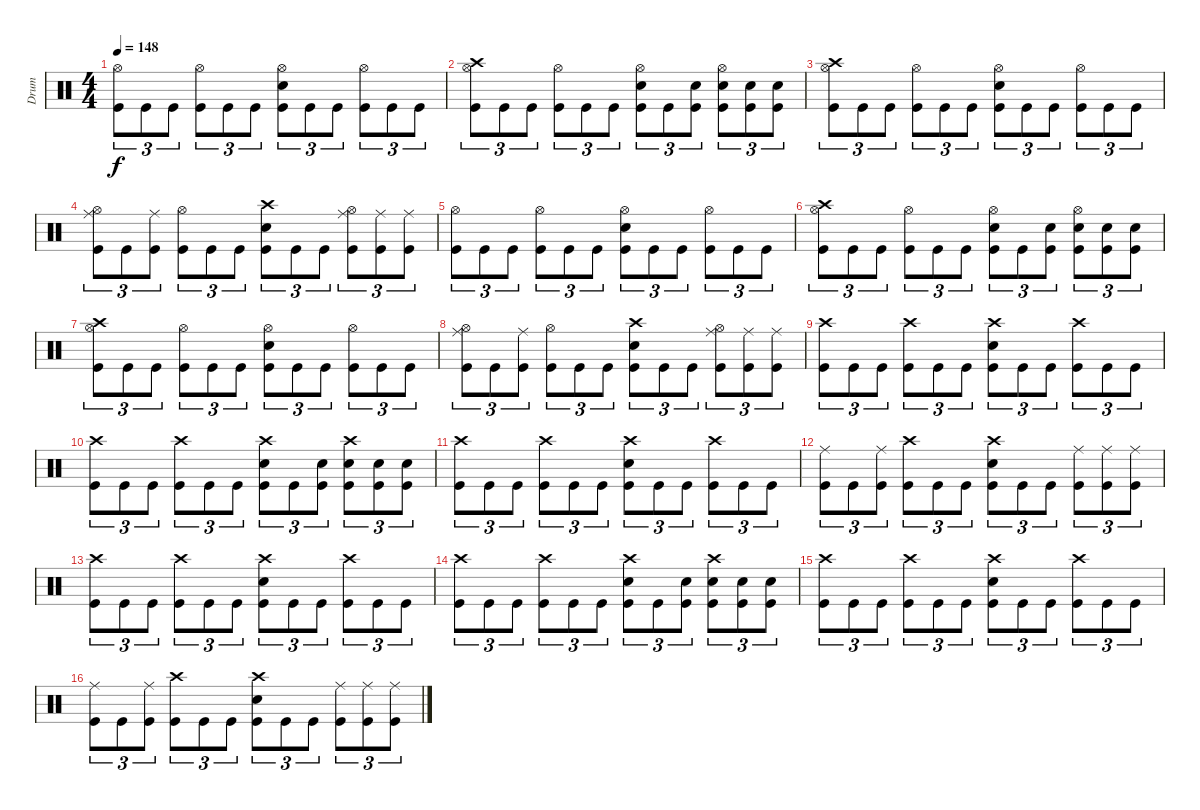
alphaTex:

\track ("Drum" "Drum") {instrument percussion}
\staff {score}
\articulation defaults
\ts (4 4)
\tempo 148
\clef neutral
\ks c
("Hi-Hat (open)" "Kick (hit)").8{tu (3 2) dy f} "Kick (hit)".8{tu (3 2)} "Kick (hit)".8{tu (3 2)} ("Hi-Hat (open)" "Kick (hit)").8{tu (3 2)} "Kick (hit)".8{tu (3 2)} "Kick (hit)".8{tu (3 2)} ("Hi-Hat (open)" "Snare (hit) 2" "Kick (hit)").8{tu (3 2)} "Kick (hit)".8{tu (3 2)} "Kick (hit)".8{tu (3 2)} ("Hi-Hat (open)" "Kick (hit)").8{tu (3 2)} "Kick (hit)".8{tu (3 2)} "Kick (hit)".8{tu (3 2)} |
("Crash high (hit)" "Hi-Hat (open)" "Kick (hit)").8{tu (3 2)} "Kick (hit)".8{tu (3 2)} "Kick (hit)".8{tu (3 2)} ("Hi-Hat (open)" "Kick (hit)").8{tu (3 2)} "Kick (hit)".8{tu (3 2)} "Kick (hit)".8{tu (3 2)} ("Hi-Hat (open)" "Snare (hit) 2" "Kick (hit)").8{tu (3 2)} "Kick (hit)".8{tu (3 2)} ("Snare (hit) 2" "Kick (hit)").8{tu (3 2)} ("Hi-Hat (open)" "Snare (hit) 2" "Kick (hit)").8{tu (3 2)} ("Snare (hit) 2" "Kick (hit)").8{tu (3 2)} ("Snare (hit) 2" "Kick (hit)").8{tu (3 2)} |
("Crash high (hit)" "Hi-Hat (open)" "Kick (hit)").8{tu (3 2)} "Kick (hit)".8{tu (3 2)} "Kick (hit)".8{tu (3 2)} ("Hi-Hat (open)" "Kick (hit)").8{tu (3 2)} "Kick (hit)".8{tu (3 2)} "Kick (hit)".8{tu (3 2)} ("Hi-Hat (open)" "Snare (hit) 2" "Kick (hit)").8{tu (3 2)} "Kick (hit)".8{tu (3 2)} "Kick (hit)".8{tu (3 2)} ("Hi-Hat (open)" "Kick (hit)").8{tu (3 2)} "Kick (hit)".8{tu (3 2)} "Kick (hit)".8{tu (3 2)} |
("Ride (middle)" "Hi-Hat (open)" "Kick (hit)").8{tu (3 2)} "Kick (hit)".8{tu (3 2)} ("Ride (middle)" "Kick (hit)").8{tu (3 2)} ("Hi-Hat (open)" "Kick (hit)").8{tu (3 2)} "Kick (hit)".8{tu (3 2)} "Kick (hit)".8{tu (3 2)} ("Crash high (hit)" "Snare (hit) 2" "Kick (hit)").8{tu (3 2)} "Kick (hit)".8{tu (3 2)} "Kick (hit)".8{tu (3 2)} ("Ride (middle)" "Hi-Hat (open)" "Kick (hit)").8{tu (3 2)} ("Ride (middle)" "Kick (hit)").8{tu (3 2)} ("Ride (middle)" "Kick (hit)").8{tu (3 2)} |
("Hi-Hat (open)" "Kick (hit)").8{tu (3 2)} "Kick (hit)".8{tu (3 2)} "Kick (hit)".8{tu (3 2)} ("Hi-Hat (open)" "Kick (hit)").8{tu (3 2)} "Kick (hit)".8{tu (3 2)} "Kick (hit)".8{tu (3 2)} ("Hi-Hat (open)" "Snare (hit) 2" "Kick (hit)").8{tu (3 2)} "Kick (hit)".8{tu (3 2)} "Kick (hit)".8{tu (3 2)} ("Hi-Hat (open)" "Kick (hit)").8{tu (3 2)} "Kick (hit)".8{tu (3 2)} "Kick (hit)".8{tu (3 2)} |
("Crash high (hit)" "Hi-Hat (open)" "Kick (hit)").8{tu (3 2)} "Kick (hit)".8{tu (3 2)} "Kick (hit)".8{tu (3 2)} ("Hi-Hat (open)" "Kick (hit)").8{tu (3 2)} "Kick (hit)".8{tu (3 2)} "Kick (hit)".8{tu (3 2)} ("Hi-Hat (open)" "Snare (hit) 2" "Kick (hit)").8{tu (3 2)} "Kick (hit)".8{tu (3 2)} ("Snare (hit) 2" "Kick (hit)").8{tu (3 2)} ("Hi-Hat (open)" "Snare (hit) 2" "Kick (hit)").8{tu (3 2)} ("Snare (hit) 2" "Kick (hit)").8{tu (3 2)} ("Snare (hit) 2" "Kick (hit)").8{tu (3 2)} |
("Crash high (hit)" "Hi-Hat (open)" "Kick (hit)").8{tu (3 2)} "Kick (hit)".8{tu (3 2)} "Kick (hit)".8{tu (3 2)} ("Hi-Hat (open)" "Kick (hit)").8{tu (3 2)} "Kick (hit)".8{tu (3 2)} "Kick (hit)".8{tu (3 2)} ("Hi-Hat (open)" "Snare (hit) 2" "Kick (hit)").8{tu (3 2)} "Kick (hit)".8{tu (3 2)} "Kick (hit)".8{tu (3 2)} ("Hi-Hat (open)" "Kick (hit)").8{tu (3 2)} "Kick (hit)".8{tu (3 2)} "Kick (hit)".8{tu (3 2)} |
("Ride (middle)" "Hi-Hat (open)" "Kick (hit)").8{tu (3 2)} "Kick (hit)".8{tu (3 2)} ("Ride (middle)" "Kick (hit)").8{tu (3 2)} ("Hi-Hat (open)" "Kick (hit)").8{tu (3 2)} "Kick (hit)".8{tu (3 2)} "Kick (hit)".8{tu (3 2)} ("Crash high (hit)" "Snare (hit) 2" "Kick (hit)").8{tu (3 2)} "Kick (hit)".8{tu (3 2)} "Kick (hit)".8{tu (3 2)} ("Ride (middle)" "Hi-Hat (open)" "Kick (hit)").8{tu (3 2)} ("Ride (middle)" "Kick (hit)").8{tu (3 2)} ("Ride (middle)" "Kick (hit)").8{tu (3 2)} |
("Crash high (hit)" "Kick (hit)").8{tu (3 2)} "Kick (hit)".8{tu (3 2)} "Kick (hit)".8{tu (3 2)} ("Crash high (hit)" "Kick (hit)").8{tu (3 2)} "Kick (hit)".8{tu (3 2)} "Kick (hit)".8{tu (3 2)} ("Crash high (hit)" "Snare (hit) 2" "Kick (hit)").8{tu (3 2)} "Kick (hit)".8{tu (3 2)} "Kick (hit)".8{tu (3 2)} ("Crash high (hit)" "Kick (hit)").8{tu (3 2)} "Kick (hit)".8{tu (3 2)} "Kick (hit)".8{tu (3 2)} |
("Crash high (hit)" "Kick (hit)").8{tu (3 2)} "Kick (hit)".8{tu (3 2)} "Kick (hit)".8{tu (3 2)} ("Crash high (hit)" "Kick (hit)").8{tu (3 2)} "Kick (hit)".8{tu (3 2)} "Kick (hit)".8{tu (3 2)} ("Crash high (hit)" "Snare (hit) 2" "Kick (hit)").8{tu (3 2)} "Kick (hit)".8{tu (3 2)} ("Snare (hit) 2" "Kick (hit)").8{tu (3 2)} ("Crash high (hit)" "Snare (hit) 2" "Kick (hit)").8{tu (3 2)} ("Snare (hit) 2" "Kick (hit)").8{tu (3 2)} ("Snare (hit) 2" "Kick (hit)").8{tu (3 2)} |
("Crash high (hit)" "Kick (hit)").8{tu (3 2)} "Kick (hit)".8{tu (3 2)} "Kick (hit)".8{tu (3 2)} ("Crash high (hit)" "Kick (hit)").8{tu (3 2)} "Kick (hit)".8{tu (3 2)} "Kick (hit)".8{tu (3 2)} ("Crash high (hit)" "Snare (hit) 2" "Kick (hit)").8{tu (3 2)} "Kick (hit)".8{tu (3 2)} "Kick (hit)".8{tu (3 2)} ("Crash high (hit)" "Kick (hit)").8{tu (3 2)} "Kick (hit)".8{tu (3 2)} "Kick (hit)".8{tu (3 2)} |
("Ride (middle)" "Kick (hit)").8{tu (3 2)} "Kick (hit)".8{tu (3 2)} ("Ride (middle)" "Kick (hit)").8{tu (3 2)} ("Crash high (hit)" "Kick (hit)").8{tu (3 2)} "Kick (hit)".8{tu (3 2)} "Kick (hit)".8{tu (3 2)} ("Crash high (hit)" "Snare (hit) 2" "Kick (hit)").8{tu (3 2)} "Kick (hit)".8{tu (3 2)} "Kick (hit)".8{tu (3 2)} ("Ride (middle)" "Kick (hit)").8{tu (3 2)} ("Ride (middle)" "Kick (hit)").8{tu (3 2)} ("Ride (middle)" "Kick (hit)").8{tu (3 2)} |
("Crash high (hit)" "Kick (hit)").8{tu (3 2)} "Kick (hit)".8{tu (3 2)} "Kick (hit)".8{tu (3 2)} ("Crash high (hit)" "Kick (hit)").8{tu (3 2)} "Kick (hit)".8{tu (3 2)} "Kick (hit)".8{tu (3 2)} ("Crash high (hit)" "Snare (hit) 2" "Kick (hit)").8{tu (3 2)} "Kick (hit)".8{tu (3 2)} "Kick (hit)".8{tu (3 2)} ("Crash high (hit)" "Kick (hit)").8{tu (3 2)} "Kick (hit)".8{tu (3 2)} "Kick (hit)".8{tu (3 2)} |
("Crash high (hit)" "Kick (hit)").8{tu (3 2)} "Kick (hit)".8{tu (3 2)} "Kick (hit)".8{tu (3 2)} ("Crash high (hit)" "Kick (hit)").8{tu (3 2)} "Kick (hit)".8{tu (3 2)} "Kick (hit)".8{tu (3 2)} ("Crash high (hit)" "Snare (hit) 2" "Kick (hit)").8{tu (3 2)} "Kick (hit)".8{tu (3 2)} ("Snare (hit) 2" "Kick (hit)").8{tu (3 2)} ("Crash high (hit)" "Snare (hit) 2" "Kick (hit)").8{tu (3 2)} ("Snare (hit) 2" "Kick (hit)").8{tu (3 2)} ("Snare (hit) 2" "Kick (hit)").8{tu (3 2)} |
("Crash high (hit)" "Kick (hit)").8{tu (3 2)} "Kick (hit)".8{tu (3 2)} "Kick (hit)".8{tu (3 2)} ("Crash high (hit)" "Kick (hit)").8{tu (3 2)} "Kick (hit)".8{tu (3 2)} "Kick (hit)".8{tu (3 2)} ("Crash high (hit)" "Snare (hit) 2" "Kick (hit)").8{tu (3 2)} "Kick (hit)".8{tu (3 2)} "Kick (hit)".8{tu (3 2)} ("Crash high (hit)" "Kick (hit)").8{tu (3 2)} "Kick (hit)".8{tu (3 2)} "Kick (hit)".8{tu (3 2)} |
("Ride (middle)" "Kick (hit)").8{tu (3 2)} "Kick (hit)".8{tu (3 2)} ("Ride (middle)" "Kick (hit)").8{tu (3 2)} ("Crash high (hit)" "Kick (hit)").8{tu (3 2)} "Kick (hit)".8{tu (3 2)} "Kick (hit)".8{tu (3 2)} ("Crash high (hit)" "Snare (hit) 2" "Kick (hit)").8{tu (3 2)} "Kick (hit)".8{tu (3 2)} "Kick (hit)".8{tu (3 2)} ("Ride (middle)" "Kick (hit)").8{tu (3 2)} ("Ride (middle)" "Kick (hit)").8{tu (3 2)} ("Ride (middle)" "Kick (hit)").8{tu (3 2)}
